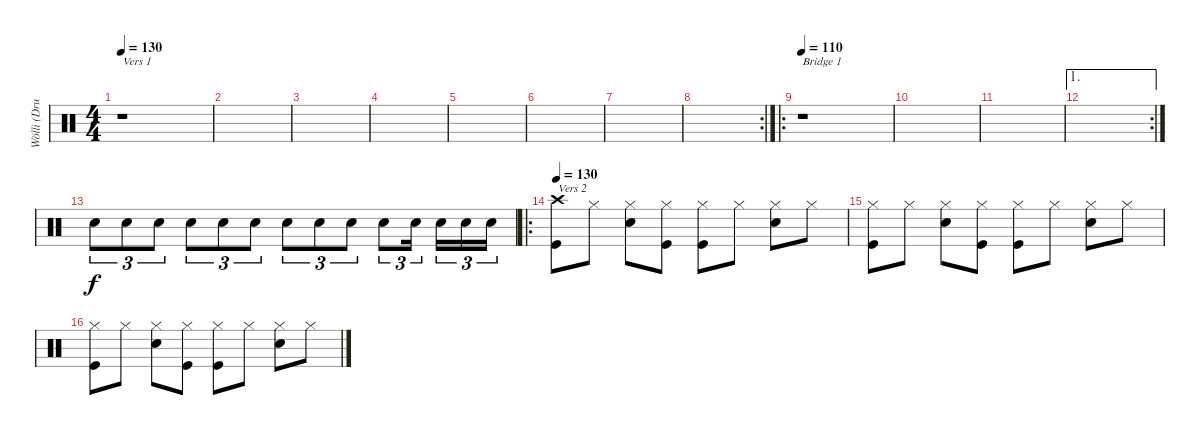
\track ("Wölli (Drums)" "Wölli (Dru") {instrument percussion}
\staff {score}
\articulation defaults
\ts (4 4)
\tempo 130
\clef neutral
\ks c
r.1{txt "Vers 1" dy f} |
|
|
|
|
|
|
\rc 2
|
\ro
\tempo 100
\tempo 110
r.1{txt "Bridge 1"} |
|
|
\ae 1
\rc 2
|
"Snare (hit) 2".8{tu (3 2)} "Snare (hit) 2".8{tu (3 2)} "Snare (hit) 2".8{tu (3 2)} "Snare (hit) 2".8{tu (3 2)} "Snare (hit) 2".8{tu (3 2)} "Snare (hit) 2".8{tu (3 2)} "Snare (hit) 2".8{tu (3 2)} "Snare (hit) 2".8{tu (3 2)} "Snare (hit) 2".8{tu (3 2)} "Snare (hit) 2".8{tu (3 2)} "Snare (hit) 2".16{tu (3 2)} "Snare (hit) 2".16{tu (3 2)} "Snare (hit) 2".16{tu (3 2)} "Snare (hit) 2".16{tu (3 2)} |
\ro
\tempo 130
("Crash high (hit)" "Kick (hit)").8{txt "Vers 2"} "Hi-Hat (closed)".8 ("Hi-Hat (closed)" "Snare (hit) 2").8 ("Hi-Hat (closed)" "Kick (hit)").8 ("Hi-Hat (closed)" "Kick (hit)").8 "Hi-Hat (closed)".8 ("Hi-Hat (closed)" "Snare (hit) 2").8 "Hi-Hat (closed)".8 |
("Hi-Hat (closed)" "Kick (hit)").8 "Hi-Hat (closed)".8 ("Hi-Hat (closed)" "Snare (hit) 2").8 ("Hi-Hat (closed)" "Kick (hit)").8 ("Hi-Hat (closed)" "Kick (hit)").8 "Hi-Hat (closed)".8 ("Hi-Hat (closed)" "Snare (hit) 2").8 "Hi-Hat (closed)".8 |
("Hi-Hat (closed)" "Kick (hit)").8 "Hi-Hat (closed)".8 ("Hi-Hat (closed)" "Snare (hit) 2").8 ("Hi-Hat (closed)" "Kick (hit)").8 ("Hi-Hat (closed)" "Kick (hit)").8 "Hi-Hat (closed)".8 ("Hi-Hat (closed)" "Snare (hit) 2").8 "Hi-Hat (closed)".8
